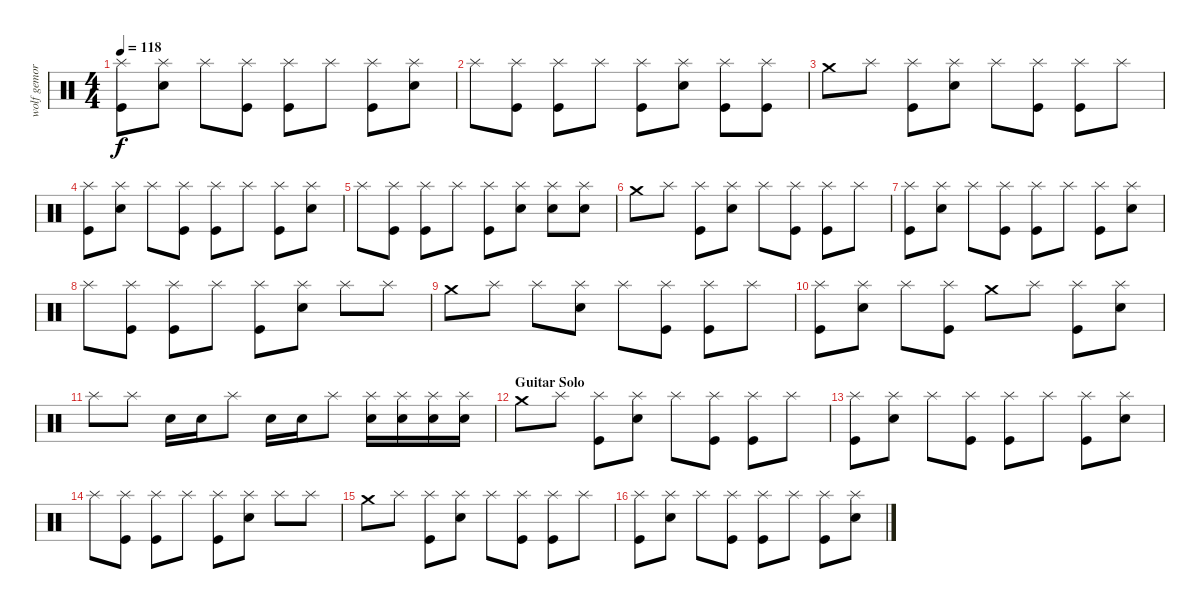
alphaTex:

\track ("wolf gemora" "wolf gemor") {instrument percussion}
\staff {score}
\articulation defaults
\ts (4 4)
\tempo 118
\clef neutral
\ks c
("Splash (hit)" "Kick (hit)").8{dy f} ("Splash (hit)" "Electric Snare (hit)").8 "Splash (hit)".8 ("Splash (hit)" "Kick (hit)").8 ("Splash (hit)" "Kick (hit)").8 "Splash (hit)".8 ("Splash (hit)" "Kick (hit)").8 ("Splash (hit)" "Electric Snare (hit)").8 |
"Splash (hit)".8 ("Splash (hit)" "Kick (hit)").8 ("Splash (hit)" "Kick (hit)").8 "Splash (hit)".8 ("Splash (hit)" "Kick (hit)").8 ("Splash (hit)" "Electric Snare (hit)").8 ("Splash (hit)" "Kick (hit)").8 ("Splash (hit)" "Kick (hit)").8 |
"Crash medium (hit)".8 "Splash (hit)".8 ("Splash (hit)" "Kick (hit)").8 ("Splash (hit)" "Electric Snare (hit)").8 "Splash (hit)".8 ("Splash (hit)" "Kick (hit)").8 ("Splash (hit)" "Kick (hit)").8 "Splash (hit)".8 |
("Splash (hit)" "Kick (hit)").8 ("Splash (hit)" "Electric Snare (hit)").8 "Splash (hit)".8 ("Splash (hit)" "Kick (hit)").8 ("Splash (hit)" "Kick (hit)").8 "Splash (hit)".8 ("Splash (hit)" "Kick (hit)").8 ("Splash (hit)" "Electric Snare (hit)").8 |
"Splash (hit)".8 ("Splash (hit)" "Kick (hit)").8 ("Splash (hit)" "Kick (hit)").8 "Splash (hit)".8 ("Splash (hit)" "Kick (hit)").8 ("Splash (hit)" "Electric Snare (hit)").8 ("Splash (hit)" "Electric Snare (hit)").8 ("Splash (hit)" "Electric Snare (hit)").8 |
"Crash medium (hit)".8 "Splash (hit)".8 ("Splash (hit)" "Kick (hit)").8 ("Splash (hit)" "Electric Snare (hit)").8 "Splash (hit)".8 ("Splash (hit)" "Kick (hit)").8 ("Splash (hit)" "Kick (hit)").8 "Splash (hit)".8 |
("Splash (hit)" "Kick (hit)").8 ("Splash (hit)" "Electric Snare (hit)").8 "Splash (hit)".8 ("Splash (hit)" "Kick (hit)").8 ("Splash (hit)" "Kick (hit)").8 "Splash (hit)".8 ("Splash (hit)" "Kick (hit)").8 ("Splash (hit)" "Electric Snare (hit)").8 |
"Splash (hit)".8 ("Splash (hit)" "Kick (hit)").8 ("Splash (hit)" "Kick (hit)").8 "Splash (hit)".8 ("Splash (hit)" "Kick (hit)").8 ("Splash (hit)" "Electric Snare (hit)").8 "Splash (hit)".8 "Splash (hit)".8 |
"Crash medium (hit)".8 "Splash (hit)".8 "Splash (hit)".8 ("Splash (hit)" "Electric Snare (hit)").8 "Splash (hit)".8 ("Splash (hit)" "Kick (hit)").8 ("Splash (hit)" "Kick (hit)").8 "Splash (hit)".8 |
("Splash (hit)" "Kick (hit)").8 ("Splash (hit)" "Electric Snare (hit)").8 "Splash (hit)".8 ("Splash (hit)" "Kick (hit)").8 "Crash medium (hit)".8 "Splash (hit)".8 ("Splash (hit)" "Kick (hit)").8 ("Splash (hit)" "Electric Snare (hit)").8 |
"Splash (hit)".8 "Splash (hit)".8 "Electric Snare (hit)".16 "Electric Snare (hit)".16 "Splash (hit)".8 "Electric Snare (hit)".16 "Electric Snare (hit)".16 "Splash (hit)".8 ("Electric Snare (hit)" "Splash (hit)").16 ("Electric Snare (hit)" "Splash (hit)").16 ("Electric Snare (hit)" "Splash (hit)").16 ("Electric Snare (hit)" "Splash (hit)").16 |
\section ("" "Guitar Solo")
"Crash medium (hit)".8 "Splash (hit)".8 ("Splash (hit)" "Kick (hit)").8 ("Splash (hit)" "Electric Snare (hit)").8 "Splash (hit)".8 ("Splash (hit)" "Kick (hit)").8 ("Splash (hit)" "Kick (hit)").8 "Splash (hit)".8 |
("Splash (hit)" "Kick (hit)").8 ("Splash (hit)" "Electric Snare (hit)").8 "Splash (hit)".8 ("Splash (hit)" "Kick (hit)").8 ("Splash (hit)" "Kick (hit)").8 "Splash (hit)".8 ("Splash (hit)" "Kick (hit)").8 ("Splash (hit)" "Electric Snare (hit)").8 |
"Splash (hit)".8 ("Splash (hit)" "Kick (hit)").8 ("Splash (hit)" "Kick (hit)").8 "Splash (hit)".8 ("Splash (hit)" "Kick (hit)").8 ("Splash (hit)" "Electric Snare (hit)").8 "Splash (hit)".8 "Splash (hit)".8 |
"Crash medium (hit)".8 "Splash (hit)".8 ("Splash (hit)" "Kick (hit)").8 ("Splash (hit)" "Electric Snare (hit)").8 "Splash (hit)".8 ("Splash (hit)" "Kick (hit)").8 ("Splash (hit)" "Kick (hit)").8 "Splash (hit)".8 |
("Splash (hit)" "Kick (hit)").8 ("Splash (hit)" "Electric Snare (hit)").8 "Splash (hit)".8 ("Splash (hit)" "Kick (hit)").8 ("Splash (hit)" "Kick (hit)").8 "Splash (hit)".8 ("Splash (hit)" "Kick (hit)").8 ("Splash (hit)" "Electric Snare (hit)").8
